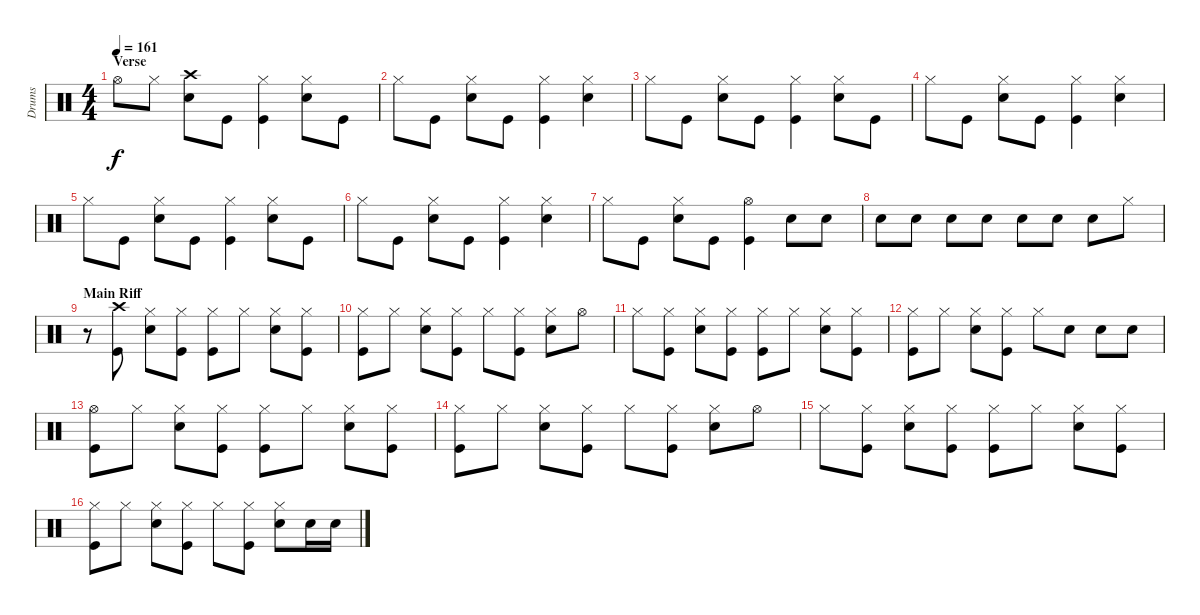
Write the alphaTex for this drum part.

\track ("Drums" "Drums") {instrument percussion}
\staff {score}
\articulation defaults
\ts (4 4)
\section ("" "Verse")
\tempo 161
\clef neutral
\ks c "Hi-Hat (open)".8{dy f} "Hi-Hat (closed)".8
("Crash high (hit)" "Electric Snare (hit)").8 "Kick (hit)".8 ("Hi-Hat (closed)" "Kick (hit)").4 ("Hi-Hat (closed)" "Electric Snare (hit)").8 "Kick (hit)".8 |
"Hi-Hat (closed)".8 "Kick (hit)".8 ("Hi-Hat (closed)" "Electric Snare (hit)").8 "Kick (hit)".8 ("Hi-Hat (closed)" "Kick (hit)").4 ("Hi-Hat (closed)" "Electric Snare (hit)").4 |
"Hi-Hat (closed)".8 "Kick (hit)".8 ("Hi-Hat (closed)" "Electric Snare (hit)").8 "Kick (hit)".8 ("Hi-Hat (closed)" "Kick (hit)").4 ("Hi-Hat (closed)" "Electric Snare (hit)").8 "Kick (hit)".8 |
"Hi-Hat (closed)".8 "Kick (hit)".8 ("Hi-Hat (closed)" "Electric Snare (hit)").8 "Kick (hit)".8 ("Hi-Hat (closed)" "Kick (hit)").4 ("Hi-Hat (closed)" "Electric Snare (hit)").4 |
"Hi-Hat (closed)".8 "Kick (hit)".8 ("Hi-Hat (closed)" "Electric Snare (hit)").8 "Kick (hit)".8 ("Hi-Hat (closed)" "Kick (hit)").4 ("Hi-Hat (closed)" "Electric Snare (hit)").8 "Kick (hit)".8 |
"Hi-Hat (closed)".8 "Kick (hit)".8 ("Hi-Hat (closed)" "Electric Snare (hit)").8 "Kick (hit)".8 ("Hi-Hat (closed)" "Kick (hit)").4 ("Hi-Hat (closed)" "Electric Snare (hit)").4 |
"Hi-Hat (closed)".8 "Kick (hit)".8 ("Hi-Hat (closed)" "Electric Snare (hit)").8 "Kick (hit)".8 ("Hi-Hat (open)" "Kick (hit)").4 "Electric Snare (hit)".8 "Electric Snare (hit)".8 |
"Electric Snare (hit)".8 "Electric Snare (hit)".8 "Electric Snare (hit)".8 "Electric Snare (hit)".8 "Electric Snare (hit)".8 "Electric Snare (hit)".8 "Electric Snare (hit)".8 "Hi-Hat (closed)".8 |
\section ("" "Main Riff")
r.8 ("Crash high (hit)" "Kick (hit)").8 ("Hi-Hat (closed)" "Electric Snare (hit)").8 ("Hi-Hat (closed)" "Kick (hit)").8 ("Hi-Hat (closed)" "Kick (hit)").8 "Hi-Hat (closed)".8 ("Hi-Hat (closed)" "Electric Snare (hit)").8 ("Hi-Hat (closed)" "Kick (hit)").8 |
("Hi-Hat (closed)" "Kick (hit)").8 "Hi-Hat (closed)".8 ("Hi-Hat (closed)" "Electric Snare (hit)").8 ("Hi-Hat (closed)" "Kick (hit)").8 "Hi-Hat (closed)".8 ("Hi-Hat (closed)" "Kick (hit)").8 ("Hi-Hat (closed)" "Electric Snare (hit)").8 "Hi-Hat (open)".8 |
"Hi-Hat (closed)".8 ("Hi-Hat (closed)" "Kick (hit)").8 ("Hi-Hat (closed)" "Electric Snare (hit)").8 ("Hi-Hat (closed)" "Kick (hit)").8 ("Hi-Hat (closed)" "Kick (hit)").8 "Hi-Hat (closed)".8 ("Hi-Hat (closed)" "Electric Snare (hit)").8 ("Hi-Hat (closed)" "Kick (hit)").8 |
("Hi-Hat (closed)" "Kick (hit)").8 "Hi-Hat (closed)".8 ("Hi-Hat (closed)" "Electric Snare (hit)").8 ("Hi-Hat (closed)" "Kick (hit)").8 "Hi-Hat (closed)".8 "Electric Snare (hit)".8 "Electric Snare (hit)".8 "Electric Snare (hit)".8 |
("Hi-Hat (open)" "Kick (hit)").8 "Hi-Hat (closed)".8 ("Hi-Hat (closed)" "Electric Snare (hit)").8 ("Hi-Hat (closed)" "Kick (hit)").8 ("Hi-Hat (closed)" "Kick (hit)").8 "Hi-Hat (closed)".8 ("Hi-Hat (closed)" "Electric Snare (hit)").8 ("Hi-Hat (closed)" "Kick (hit)").8 |
("Hi-Hat (closed)" "Kick (hit)").8 "Hi-Hat (closed)".8 ("Hi-Hat (closed)" "Electric Snare (hit)").8 ("Hi-Hat (closed)" "Kick (hit)").8 "Hi-Hat (closed)".8 ("Hi-Hat (closed)" "Kick (hit)").8 ("Hi-Hat (closed)" "Electric Snare (hit)").8 "Hi-Hat (open)".8 |
"Hi-Hat (closed)".8 ("Hi-Hat (closed)" "Kick (hit)").8 ("Hi-Hat (closed)" "Electric Snare (hit)").8 ("Hi-Hat (closed)" "Kick (hit)").8 ("Hi-Hat (closed)" "Kick (hit)").8 "Hi-Hat (closed)".8 ("Hi-Hat (closed)" "Electric Snare (hit)").8 ("Hi-Hat (closed)" "Kick (hit)").8 |
("Hi-Hat (closed)" "Kick (hit)").8 "Hi-Hat (closed)".8 ("Hi-Hat (closed)" "Electric Snare (hit)").8 ("Hi-Hat (closed)" "Kick (hit)").8 "Hi-Hat (closed)".8 ("Hi-Hat (closed)" "Kick (hit)").8 ("Hi-Hat (closed)" "Electric Snare (hit)").8 "Electric Snare (hit)".16 "Electric Snare (hit)".16
